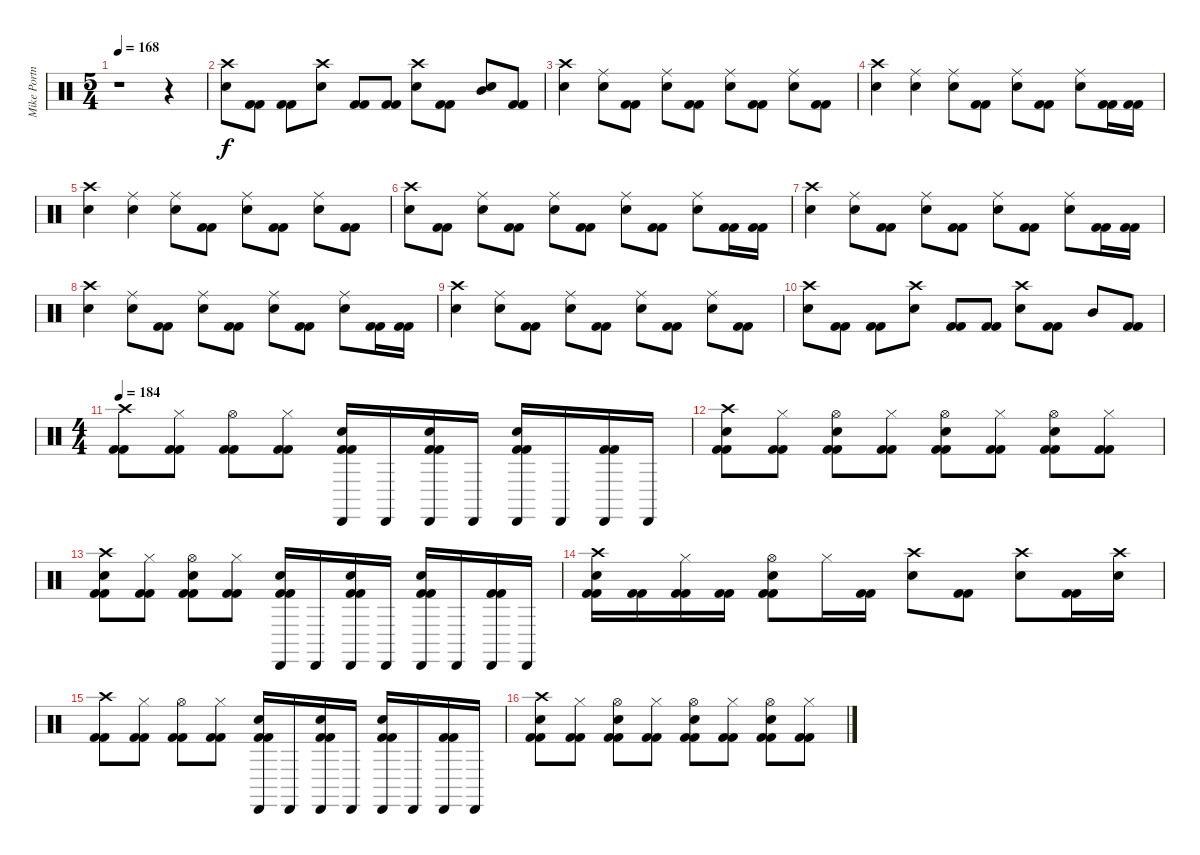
\track ("Mike Portnoy - Drum" "Mike Portn") {instrument percussion}
\staff {score}
\articulation defaults
\ts (5 4)
\tempo 168
\clef neutral
\ks c
r.1{dy f} r.4 |
("Crash high (hit)" "Snare (hit) 2").8 ("Kick (hit) 2" "Kick (hit) 2").8 ("Kick (hit) 2" "Kick (hit) 2").8 ("Crash high (hit)" "Snare (hit) 2").8 ("Kick (hit) 2" "Kick (hit) 2").8 ("Kick (hit) 2" "Kick (hit) 2").8 ("Crash high (hit)" "Snare (hit) 2").8 ("Kick (hit) 2" "Kick (hit) 2").8 ("Mid Tom (hit)" "Snare (hit) 2").8 ("Kick (hit) 2" "Kick (hit) 2").8 |
("Crash high (hit)" "Snare (hit) 2").4 ("Ride (middle)" "Snare (hit) 2").8 ("Kick (hit) 2" "Kick (hit) 2").8 ("Ride (middle)" "Snare (hit) 2").8 ("Kick (hit) 2" "Kick (hit) 2").8 ("Ride (middle)" "Snare (hit) 2").8 ("Kick (hit) 2" "Kick (hit) 2").8 ("Ride (middle)" "Snare (hit) 2").8 ("Kick (hit) 2" "Kick (hit) 2").8 |
("Crash high (hit)" "Snare (hit) 2").4 ("Ride (middle)" "Snare (hit) 2").4 ("Ride (middle)" "Snare (hit) 2").8 ("Kick (hit) 2" "Kick (hit) 2").8 ("Ride (middle)" "Snare (hit) 2").8 ("Kick (hit) 2" "Kick (hit) 2").8 ("Ride (middle)" "Snare (hit) 2").8 ("Kick (hit) 2" "Kick (hit) 2").16 ("Kick (hit) 2" "Kick (hit) 2").16 |
("Crash high (hit)" "Snare (hit) 2").4 ("Ride (middle)" "Snare (hit) 2").4 ("Ride (middle)" "Snare (hit) 2").8 ("Kick (hit) 2" "Kick (hit) 2").8 ("Ride (middle)" "Snare (hit) 2").8 ("Kick (hit) 2" "Kick (hit) 2").8 ("Ride (middle)" "Snare (hit) 2").8 ("Kick (hit) 2" "Kick (hit) 2").8 |
("Crash high (hit)" "Snare (hit) 2").8 ("Kick (hit) 2" "Kick (hit) 2").8 ("Ride (middle)" "Snare (hit) 2").8 ("Kick (hit) 2" "Kick (hit) 2").8 ("Ride (middle)" "Snare (hit) 2").8 ("Kick (hit) 2" "Kick (hit) 2").8 ("Ride (middle)" "Snare (hit) 2").8 ("Kick (hit) 2" "Kick (hit) 2").8 ("Ride (middle)" "Snare (hit) 2").8 ("Kick (hit) 2" "Kick (hit) 2").16 ("Kick (hit) 2" "Kick (hit) 2").16 |
("Crash high (hit)" "Snare (hit) 2").4 ("Ride (middle)" "Snare (hit) 2").8 ("Kick (hit) 2" "Kick (hit) 2").8 ("Ride (middle)" "Snare (hit) 2").8 ("Kick (hit) 2" "Kick (hit) 2").8 ("Ride (middle)" "Snare (hit) 2").8 ("Kick (hit) 2" "Kick (hit) 2").8 ("Ride (middle)" "Snare (hit) 2").8 ("Kick (hit) 2" "Kick (hit) 2").16 ("Kick (hit) 2" "Kick (hit) 2").16 |
("Crash high (hit)" "Snare (hit) 2").4 ("Ride (middle)" "Snare (hit) 2").8 ("Kick (hit) 2" "Kick (hit) 2").8 ("Ride (middle)" "Snare (hit) 2").8 ("Kick (hit) 2" "Kick (hit) 2").8 ("Ride (middle)" "Snare (hit) 2").8 ("Kick (hit) 2" "Kick (hit) 2").8 ("Ride (middle)" "Snare (hit) 2").8 ("Kick (hit) 2" "Kick (hit) 2").16 ("Kick (hit) 2" "Kick (hit) 2").16 |
("Crash high (hit)" "Snare (hit) 2").4 ("Ride (middle)" "Snare (hit) 2").8 ("Kick (hit) 2" "Kick (hit) 2").8 ("Ride (middle)" "Snare (hit) 2").8 ("Kick (hit) 2" "Kick (hit) 2").8 ("Ride (middle)" "Snare (hit) 2").8 ("Kick (hit) 2" "Kick (hit) 2").8 ("Ride (middle)" "Snare (hit) 2").8 ("Kick (hit) 2" "Kick (hit) 2").8 |
("Crash high (hit)" "Snare (hit) 2").8 ("Kick (hit) 2" "Kick (hit) 2").8 ("Kick (hit) 2" "Kick (hit) 2").8 ("Crash high (hit)" "Snare (hit) 2").8 ("Kick (hit) 2" "Kick (hit) 2").8 ("Kick (hit) 2" "Kick (hit) 2").8 ("Crash high (hit)" "Snare (hit) 2").8 ("Kick (hit) 2" "Kick (hit) 2").8 "Mid Tom (hit)".8 ("Kick (hit) 2" "Kick (hit) 2").8 |
\ts (4 4)
\tempo 184
("Crash high (hit)" "Kick (hit) 2" "Kick (hit) 2").8 ("Hi-Hat (closed)" "Kick (hit) 2" "Kick (hit) 2").8 ("Hi-Hat (open)" "Kick (hit) 2" "Kick (hit) 2").8 ("Hi-Hat (closed)" "Kick (hit) 2" "Kick (hit) 2").8 ("Cabasa (hit)" "Snare (hit) 2" "Kick (hit) 2" "Kick (hit) 2").16 "Cabasa (hit)".16 ("Cabasa (hit)" "Snare (hit) 2" "Kick (hit) 2" "Kick (hit) 2").16 "Cabasa (hit)".16 ("Cabasa (hit)" "Snare (hit) 2" "Kick (hit) 2" "Kick (hit) 2").16 "Cabasa (hit)".16 ("Cabasa (hit)" "Kick (hit) 2" "Kick (hit) 2").16 "Cabasa (hit)".16 |
("Crash high (hit)" "Snare (hit) 2" "Kick (hit) 2" "Kick (hit) 2").8 ("Hi-Hat (closed)" "Kick (hit) 2" "Kick (hit) 2").8 ("Hi-Hat (open)" "Snare (hit) 2" "Kick (hit) 2" "Kick (hit) 2").8 ("Hi-Hat (closed)" "Kick (hit) 2" "Kick (hit) 2").8 ("Hi-Hat (open)" "Snare (hit) 2" "Kick (hit) 2" "Kick (hit) 2").8 ("Hi-Hat (closed)" "Kick (hit) 2" "Kick (hit) 2").8 ("Hi-Hat (open)" "Snare (hit) 2" "Kick (hit) 2" "Kick (hit) 2").8 ("Hi-Hat (closed)" "Kick (hit) 2" "Kick (hit) 2").8 |
("Crash high (hit)" "Snare (hit) 2" "Kick (hit) 2" "Kick (hit) 2").8 ("Hi-Hat (closed)" "Kick (hit) 2" "Kick (hit) 2").8 ("Hi-Hat (open)" "Snare (hit) 2" "Kick (hit) 2" "Kick (hit) 2").8 ("Hi-Hat (closed)" "Kick (hit) 2" "Kick (hit) 2").8 ("Cabasa (hit)" "Snare (hit) 2" "Kick (hit) 2" "Kick (hit) 2").16 "Cabasa (hit)".16 ("Cabasa (hit)" "Snare (hit) 2" "Kick (hit) 2" "Kick (hit) 2").16 "Cabasa (hit)".16 ("Cabasa (hit)" "Snare (hit) 2" "Kick (hit) 2" "Kick (hit) 2").16 "Cabasa (hit)".16 ("Cabasa (hit)" "Kick (hit) 2" "Kick (hit) 2").16 "Cabasa (hit)".16 |
("Crash high (hit)" "Snare (hit) 2" "Kick (hit) 2" "Kick (hit) 2").16 ("Kick (hit) 2" "Kick (hit) 2").16 ("Hi-Hat (closed)" "Kick (hit) 2" "Kick (hit) 2").16 ("Kick (hit) 2" "Kick (hit) 2").16 ("Hi-Hat (open)" "Snare (hit) 2" "Kick (hit) 2" "Kick (hit) 2").8 "Hi-Hat (closed)".16 ("Kick (hit) 2" "Kick (hit) 2").16 ("Crash high (hit)" "Snare (hit) 2").8 ("Kick (hit) 2" "Kick (hit) 2").8 ("Crash high (hit)" "Snare (hit) 2").8 ("Kick (hit) 2" "Kick (hit) 2").16 ("Crash high (hit)" "Snare (hit) 2").16 |
("Crash high (hit)" "Kick (hit) 2" "Kick (hit) 2").8 ("Hi-Hat (closed)" "Kick (hit) 2" "Kick (hit) 2").8 ("Hi-Hat (open)" "Kick (hit) 2" "Kick (hit) 2").8 ("Hi-Hat (closed)" "Kick (hit) 2" "Kick (hit) 2").8 ("Cabasa (hit)" "Snare (hit) 2" "Kick (hit) 2" "Kick (hit) 2").16 "Cabasa (hit)".16 ("Cabasa (hit)" "Snare (hit) 2" "Kick (hit) 2" "Kick (hit) 2").16 "Cabasa (hit)".16 ("Cabasa (hit)" "Snare (hit) 2" "Kick (hit) 2" "Kick (hit) 2").16 "Cabasa (hit)".16 ("Cabasa (hit)" "Kick (hit) 2" "Kick (hit) 2").16 "Cabasa (hit)".16 |
("Crash high (hit)" "Snare (hit) 2" "Kick (hit) 2" "Kick (hit) 2").8 ("Hi-Hat (closed)" "Kick (hit) 2" "Kick (hit) 2").8 ("Hi-Hat (open)" "Snare (hit) 2" "Kick (hit) 2" "Kick (hit) 2").8 ("Hi-Hat (closed)" "Kick (hit) 2" "Kick (hit) 2").8 ("Hi-Hat (open)" "Snare (hit) 2" "Kick (hit) 2" "Kick (hit) 2").8 ("Hi-Hat (closed)" "Kick (hit) 2" "Kick (hit) 2").8 ("Hi-Hat (open)" "Snare (hit) 2" "Kick (hit) 2" "Kick (hit) 2").8 ("Hi-Hat (closed)" "Kick (hit) 2" "Kick (hit) 2").8
